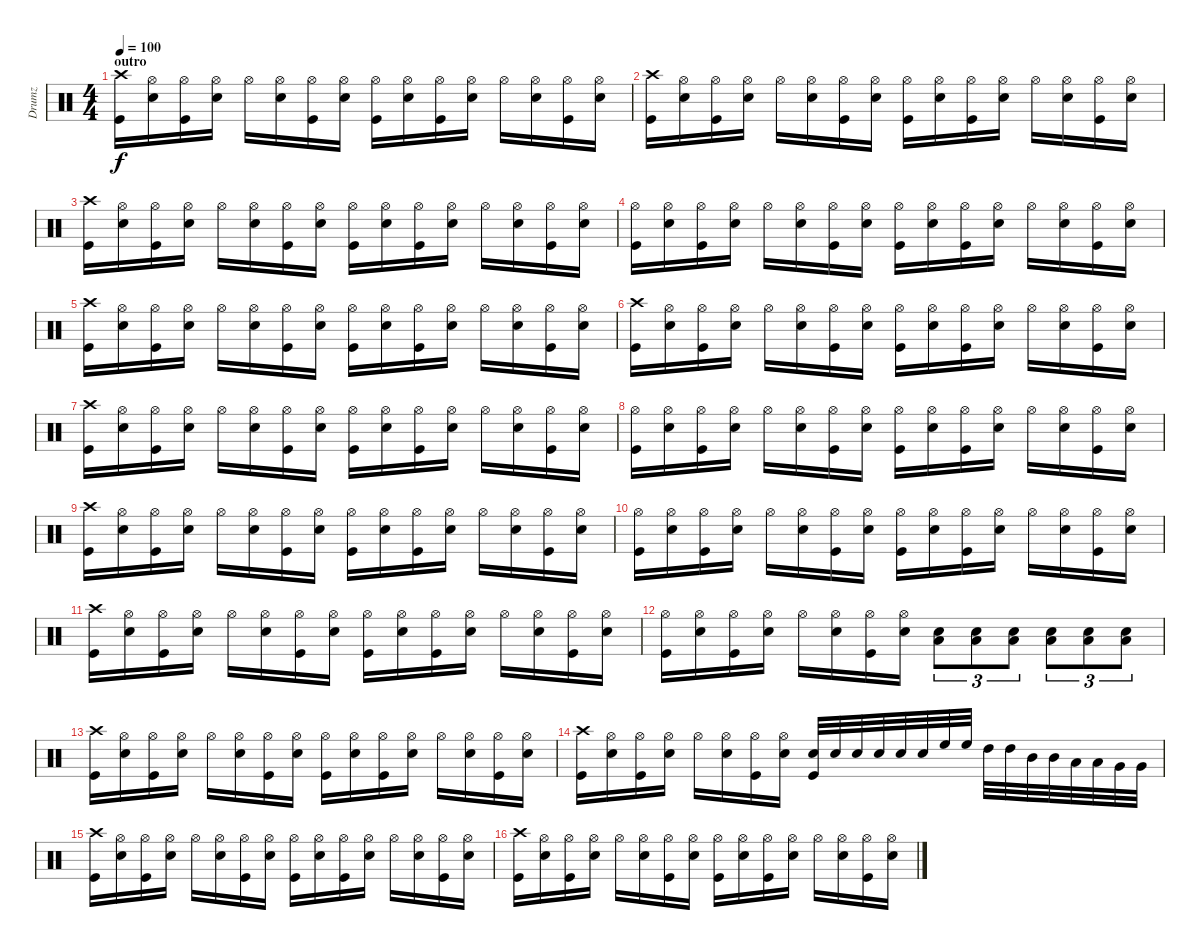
\track ("Drumz" "Drumz") {instrument percussion}
\staff {score}
\articulation defaults
\ts (4 4)
\section ("" "outro")
\tempo 100
\clef neutral
\ks c
("Crash high (hit)" "Kick (hit)").16{dy f} ("Hi-Hat (open)" "Electric Snare (hit)").16 ("Hi-Hat (open)" "Kick (hit)").16 ("Hi-Hat (open)" "Electric Snare (hit)").16 "Hi-Hat (open)".16 ("Hi-Hat (open)" "Electric Snare (hit)").16 ("Hi-Hat (open)" "Kick (hit)").16 ("Hi-Hat (open)" "Electric Snare (hit)").16 ("Hi-Hat (open)" "Kick (hit)").16 ("Hi-Hat (open)" "Electric Snare (hit)").16 ("Hi-Hat (open)" "Kick (hit)").16 ("Hi-Hat (open)" "Electric Snare (hit)").16 "Hi-Hat (open)".16 ("Hi-Hat (open)" "Electric Snare (hit)").16 ("Hi-Hat (open)" "Kick (hit)").16 ("Hi-Hat (open)" "Electric Snare (hit)").16 |
("Crash high (hit)" "Kick (hit)").16 ("Hi-Hat (open)" "Electric Snare (hit)").16 ("Hi-Hat (open)" "Kick (hit)").16 ("Hi-Hat (open)" "Electric Snare (hit)").16 "Hi-Hat (open)".16 ("Hi-Hat (open)" "Electric Snare (hit)").16 ("Hi-Hat (open)" "Kick (hit)").16 ("Hi-Hat (open)" "Electric Snare (hit)").16 ("Hi-Hat (open)" "Kick (hit)").16 ("Hi-Hat (open)" "Electric Snare (hit)").16 ("Hi-Hat (open)" "Kick (hit)").16 ("Hi-Hat (open)" "Electric Snare (hit)").16 "Hi-Hat (open)".16 ("Hi-Hat (open)" "Electric Snare (hit)").16 ("Hi-Hat (open)" "Kick (hit)").16 ("Hi-Hat (open)" "Electric Snare (hit)").16 |
("Crash high (hit)" "Kick (hit)").16 ("Hi-Hat (open)" "Electric Snare (hit)").16 ("Hi-Hat (open)" "Kick (hit)").16 ("Hi-Hat (open)" "Electric Snare (hit)").16 "Hi-Hat (open)".16 ("Hi-Hat (open)" "Electric Snare (hit)").16 ("Hi-Hat (open)" "Kick (hit)").16 ("Hi-Hat (open)" "Electric Snare (hit)").16 ("Hi-Hat (open)" "Kick (hit)").16 ("Hi-Hat (open)" "Electric Snare (hit)").16 ("Hi-Hat (open)" "Kick (hit)").16 ("Hi-Hat (open)" "Electric Snare (hit)").16 "Hi-Hat (open)".16 ("Hi-Hat (open)" "Electric Snare (hit)").16 ("Hi-Hat (open)" "Kick (hit)").16 ("Hi-Hat (open)" "Electric Snare (hit)").16 |
("Hi-Hat (open)" "Kick (hit)").16 ("Hi-Hat (open)" "Electric Snare (hit)").16 ("Hi-Hat (open)" "Kick (hit)").16 ("Hi-Hat (open)" "Electric Snare (hit)").16 "Hi-Hat (open)".16 ("Hi-Hat (open)" "Electric Snare (hit)").16 ("Hi-Hat (open)" "Kick (hit)").16 ("Hi-Hat (open)" "Electric Snare (hit)").16 ("Hi-Hat (open)" "Kick (hit)").16 ("Hi-Hat (open)" "Electric Snare (hit)").16 ("Hi-Hat (open)" "Kick (hit)").16 ("Hi-Hat (open)" "Electric Snare (hit)").16 "Hi-Hat (open)".16 ("Hi-Hat (open)" "Electric Snare (hit)").16 ("Hi-Hat (open)" "Kick (hit)").16 ("Hi-Hat (open)" "Electric Snare (hit)").16 |
("Crash high (hit)" "Kick (hit)").16 ("Hi-Hat (open)" "Electric Snare (hit)").16 ("Hi-Hat (open)" "Kick (hit)").16 ("Hi-Hat (open)" "Electric Snare (hit)").16 "Hi-Hat (open)".16 ("Hi-Hat (open)" "Electric Snare (hit)").16 ("Hi-Hat (open)" "Kick (hit)").16 ("Hi-Hat (open)" "Electric Snare (hit)").16 ("Hi-Hat (open)" "Kick (hit)").16 ("Hi-Hat (open)" "Electric Snare (hit)").16 ("Hi-Hat (open)" "Kick (hit)").16 ("Hi-Hat (open)" "Electric Snare (hit)").16 "Hi-Hat (open)".16 ("Hi-Hat (open)" "Electric Snare (hit)").16 ("Hi-Hat (open)" "Kick (hit)").16 ("Hi-Hat (open)" "Electric Snare (hit)").16 |
("Crash high (hit)" "Kick (hit)").16 ("Hi-Hat (open)" "Electric Snare (hit)").16 ("Hi-Hat (open)" "Kick (hit)").16 ("Hi-Hat (open)" "Electric Snare (hit)").16 "Hi-Hat (open)".16 ("Hi-Hat (open)" "Electric Snare (hit)").16 ("Hi-Hat (open)" "Kick (hit)").16 ("Hi-Hat (open)" "Electric Snare (hit)").16 ("Hi-Hat (open)" "Kick (hit)").16 ("Hi-Hat (open)" "Electric Snare (hit)").16 ("Hi-Hat (open)" "Kick (hit)").16 ("Hi-Hat (open)" "Electric Snare (hit)").16 "Hi-Hat (open)".16 ("Hi-Hat (open)" "Electric Snare (hit)").16 ("Hi-Hat (open)" "Kick (hit)").16 ("Hi-Hat (open)" "Electric Snare (hit)").16 |
("Crash high (hit)" "Kick (hit)").16 ("Hi-Hat (open)" "Electric Snare (hit)").16 ("Hi-Hat (open)" "Kick (hit)").16 ("Hi-Hat (open)" "Electric Snare (hit)").16 "Hi-Hat (open)".16 ("Hi-Hat (open)" "Electric Snare (hit)").16 ("Hi-Hat (open)" "Kick (hit)").16 ("Hi-Hat (open)" "Electric Snare (hit)").16 ("Hi-Hat (open)" "Kick (hit)").16 ("Hi-Hat (open)" "Electric Snare (hit)").16 ("Hi-Hat (open)" "Kick (hit)").16 ("Hi-Hat (open)" "Electric Snare (hit)").16 "Hi-Hat (open)".16 ("Hi-Hat (open)" "Electric Snare (hit)").16 ("Hi-Hat (open)" "Kick (hit)").16 ("Hi-Hat (open)" "Electric Snare (hit)").16 |
("Hi-Hat (open)" "Kick (hit)").16 ("Hi-Hat (open)" "Electric Snare (hit)").16 ("Hi-Hat (open)" "Kick (hit)").16 ("Hi-Hat (open)" "Electric Snare (hit)").16 "Hi-Hat (open)".16 ("Hi-Hat (open)" "Electric Snare (hit)").16 ("Hi-Hat (open)" "Kick (hit)").16 ("Hi-Hat (open)" "Electric Snare (hit)").16 ("Hi-Hat (open)" "Kick (hit)").16 ("Hi-Hat (open)" "Electric Snare (hit)").16 ("Hi-Hat (open)" "Kick (hit)").16 ("Hi-Hat (open)" "Electric Snare (hit)").16 "Hi-Hat (open)".16 ("Hi-Hat (open)" "Electric Snare (hit)").16 ("Hi-Hat (open)" "Kick (hit)").16 ("Hi-Hat (open)" "Electric Snare (hit)").16 |
("Crash high (hit)" "Kick (hit)").16 ("Hi-Hat (open)" "Electric Snare (hit)").16 ("Hi-Hat (open)" "Kick (hit)").16 ("Hi-Hat (open)" "Electric Snare (hit)").16 "Hi-Hat (open)".16 ("Hi-Hat (open)" "Electric Snare (hit)").16 ("Hi-Hat (open)" "Kick (hit)").16 ("Hi-Hat (open)" "Electric Snare (hit)").16 ("Hi-Hat (open)" "Kick (hit)").16 ("Hi-Hat (open)" "Electric Snare (hit)").16 ("Hi-Hat (open)" "Kick (hit)").16 ("Hi-Hat (open)" "Electric Snare (hit)").16 "Hi-Hat (open)".16 ("Hi-Hat (open)" "Electric Snare (hit)").16 ("Hi-Hat (open)" "Kick (hit)").16 ("Hi-Hat (open)" "Electric Snare (hit)").16 |
("Hi-Hat (open)" "Kick (hit)").16 ("Hi-Hat (open)" "Electric Snare (hit)").16 ("Hi-Hat (open)" "Kick (hit)").16 ("Hi-Hat (open)" "Electric Snare (hit)").16 "Hi-Hat (open)".16 ("Hi-Hat (open)" "Electric Snare (hit)").16 ("Hi-Hat (open)" "Kick (hit)").16 ("Hi-Hat (open)" "Electric Snare (hit)").16 ("Hi-Hat (open)" "Kick (hit)").16 ("Hi-Hat (open)" "Electric Snare (hit)").16 ("Hi-Hat (open)" "Kick (hit)").16 ("Hi-Hat (open)" "Electric Snare (hit)").16 "Hi-Hat (open)".16 ("Hi-Hat (open)" "Electric Snare (hit)").16 ("Hi-Hat (open)" "Kick (hit)").16 ("Hi-Hat (open)" "Electric Snare (hit)").16 |
("Crash high (hit)" "Kick (hit)").16 ("Hi-Hat (open)" "Electric Snare (hit)").16 ("Hi-Hat (open)" "Kick (hit)").16 ("Hi-Hat (open)" "Electric Snare (hit)").16 "Hi-Hat (open)".16 ("Hi-Hat (open)" "Electric Snare (hit)").16 ("Hi-Hat (open)" "Kick (hit)").16 ("Hi-Hat (open)" "Electric Snare (hit)").16 ("Hi-Hat (open)" "Kick (hit)").16 ("Hi-Hat (open)" "Electric Snare (hit)").16 ("Hi-Hat (open)" "Kick (hit)").16 ("Hi-Hat (open)" "Electric Snare (hit)").16 "Hi-Hat (open)".16 ("Hi-Hat (open)" "Electric Snare (hit)").16 ("Hi-Hat (open)" "Kick (hit)").16 ("Hi-Hat (open)" "Electric Snare (hit)").16 |
("Hi-Hat (open)" "Kick (hit)").16 ("Hi-Hat (open)" "Electric Snare (hit)").16 ("Hi-Hat (open)" "Kick (hit)").16 ("Hi-Hat (open)" "Electric Snare (hit)").16 "Hi-Hat (open)".16 ("Hi-Hat (open)" "Electric Snare (hit)").16 ("Hi-Hat (open)" "Kick (hit)").16 ("Hi-Hat (open)" "Electric Snare (hit)").16 ("Low Floor Tom (hit)" "Electric Snare (hit)").8{tu (3 2)} ("Low Floor Tom (hit)" "Electric Snare (hit)").8{tu (3 2)} ("Low Floor Tom (hit)" "Electric Snare (hit)").8{tu (3 2)} ("Low Floor Tom (hit)" "Electric Snare (hit)").8{tu (3 2)} ("Low Floor Tom (hit)" "Electric Snare (hit)").8{tu (3 2)} ("Low Floor Tom (hit)" "Electric Snare (hit)").8{tu (3 2)} |
("Crash high (hit)" "Kick (hit)").16 ("Hi-Hat (open)" "Electric Snare (hit)").16 ("Hi-Hat (open)" "Kick (hit)").16 ("Hi-Hat (open)" "Electric Snare (hit)").16 "Hi-Hat (open)".16 ("Hi-Hat (open)" "Electric Snare (hit)").16 ("Hi-Hat (open)" "Kick (hit)").16 ("Hi-Hat (open)" "Electric Snare (hit)").16 ("Hi-Hat (open)" "Kick (hit)").16 ("Hi-Hat (open)" "Electric Snare (hit)").16 ("Hi-Hat (open)" "Kick (hit)").16 ("Hi-Hat (open)" "Electric Snare (hit)").16 "Hi-Hat (open)".16 ("Hi-Hat (open)" "Electric Snare (hit)").16 ("Hi-Hat (open)" "Kick (hit)").16 ("Hi-Hat (open)" "Electric Snare (hit)").16 |
("Crash high (hit)" "Kick (hit)").16 ("Hi-Hat (open)" "Electric Snare (hit)").16 ("Hi-Hat (open)" "Kick (hit)").16 ("Hi-Hat (open)" "Electric Snare (hit)").16 "Hi-Hat (open)".16 ("Hi-Hat (open)" "Electric Snare (hit)").16 ("Hi-Hat (open)" "Kick (hit)").16 ("Hi-Hat (open)" "Electric Snare (hit)").16 ("Kick (hit)" "Electric Snare (hit)").32 "Electric Snare (hit)".32 "Electric Snare (hit)".32 "Electric Snare (hit)".32 "Electric Snare (hit)".32 "Electric Snare (hit)".32 "High Floor Tom (hit)".32 "High Floor Tom (hit)".32 "High Tom (hit)".32 "High Tom (hit)".32 "Mid Tom (hit)".32 "Mid Tom (hit)".32 "Low Tom (hit)".32 "Low Tom (hit)".32 "Very Low Tom (hit)".32 "Very Low Tom (hit)".32 |
("Crash high (hit)" "Kick (hit)").16 ("Hi-Hat (open)" "Electric Snare (hit)").16 ("Hi-Hat (open)" "Kick (hit)").16 ("Hi-Hat (open)" "Electric Snare (hit)").16 "Hi-Hat (open)".16 ("Hi-Hat (open)" "Electric Snare (hit)").16 ("Hi-Hat (open)" "Kick (hit)").16 ("Hi-Hat (open)" "Electric Snare (hit)").16 ("Hi-Hat (open)" "Kick (hit)").16 ("Hi-Hat (open)" "Electric Snare (hit)").16 ("Hi-Hat (open)" "Kick (hit)").16 ("Hi-Hat (open)" "Electric Snare (hit)").16 "Hi-Hat (open)".16 ("Hi-Hat (open)" "Electric Snare (hit)").16 ("Hi-Hat (open)" "Kick (hit)").16 ("Hi-Hat (open)" "Electric Snare (hit)").16 |
("Crash high (hit)" "Kick (hit)").16 ("Hi-Hat (open)" "Electric Snare (hit)").16 ("Hi-Hat (open)" "Kick (hit)").16 ("Hi-Hat (open)" "Electric Snare (hit)").16 "Hi-Hat (open)".16 ("Hi-Hat (open)" "Electric Snare (hit)").16 ("Hi-Hat (open)" "Kick (hit)").16 ("Hi-Hat (open)" "Electric Snare (hit)").16 ("Hi-Hat (open)" "Kick (hit)").16 ("Hi-Hat (open)" "Electric Snare (hit)").16 ("Hi-Hat (open)" "Kick (hit)").16 ("Hi-Hat (open)" "Electric Snare (hit)").16 "Hi-Hat (open)".16 ("Hi-Hat (open)" "Electric Snare (hit)").16 ("Hi-Hat (open)" "Kick (hit)").16 ("Hi-Hat (open)" "Electric Snare (hit)").16
